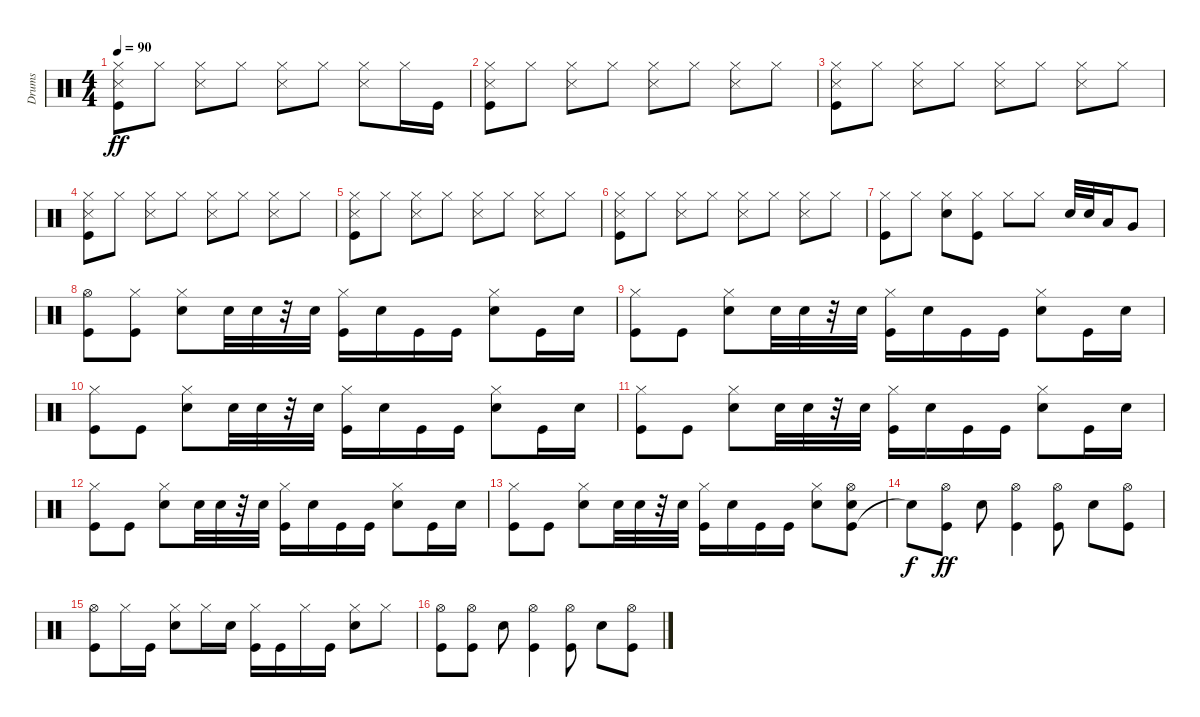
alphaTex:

\track ("Drums" "Drums") {instrument percussion}
\staff {score}
\articulation defaults
\ts (4 4)
\tempo 90
\clef neutral
\ks c
("Kick (hit)" "Snare (side stick) 3" "Hi-Hat (closed)").8{dy ff} "Hi-Hat (closed)".8 ("Snare (side stick) 3" "Hi-Hat (closed)").8 "Hi-Hat (closed)".8 ("Snare (side stick) 3" "Hi-Hat (closed)").8 "Hi-Hat (closed)".8 ("Snare (side stick) 3" "Hi-Hat (closed)").8 "Hi-Hat (closed)".16 "Kick (hit)".16 |
("Kick (hit)" "Snare (side stick) 3" "Hi-Hat (closed)").8 "Hi-Hat (closed)".8 ("Snare (side stick) 3" "Hi-Hat (closed)").8 "Hi-Hat (closed)".8 ("Snare (side stick) 3" "Hi-Hat (closed)").8 "Hi-Hat (closed)".8 ("Snare (side stick) 3" "Hi-Hat (closed)").8 "Hi-Hat (closed)".8 |
("Kick (hit)" "Snare (side stick) 3" "Hi-Hat (closed)").8 "Hi-Hat (closed)".8 ("Snare (side stick) 3" "Hi-Hat (closed)").8 "Hi-Hat (closed)".8 ("Snare (side stick) 3" "Hi-Hat (closed)").8 "Hi-Hat (closed)".8 ("Snare (side stick) 3" "Hi-Hat (closed)").8 "Hi-Hat (closed)".8 |
("Kick (hit)" "Snare (side stick) 3" "Hi-Hat (closed)").8 "Hi-Hat (closed)".8 ("Snare (side stick) 3" "Hi-Hat (closed)").8 "Hi-Hat (closed)".8 ("Snare (side stick) 3" "Hi-Hat (closed)").8 "Hi-Hat (closed)".8 ("Snare (side stick) 3" "Hi-Hat (closed)").8 "Hi-Hat (closed)".8 |
("Kick (hit)" "Snare (side stick) 3" "Hi-Hat (closed)").8 "Hi-Hat (closed)".8 ("Snare (side stick) 3" "Hi-Hat (closed)").8 "Hi-Hat (closed)".8 ("Snare (side stick) 3" "Hi-Hat (closed)").8 "Hi-Hat (closed)".8 ("Snare (side stick) 3" "Hi-Hat (closed)").8 "Hi-Hat (closed)".8 |
("Kick (hit)" "Snare (side stick) 3" "Hi-Hat (closed)").8 "Hi-Hat (closed)".8 ("Snare (side stick) 3" "Hi-Hat (closed)").8 "Hi-Hat (closed)".8 ("Snare (side stick) 3" "Hi-Hat (closed)").8 "Hi-Hat (closed)".8 ("Snare (side stick) 3" "Hi-Hat (closed)").8 "Hi-Hat (closed)".8 |
("Kick (hit)" "Hi-Hat (closed)").8 "Hi-Hat (closed)".8 ("Snare (hit) 2" "Hi-Hat (closed)").8 ("Kick (hit)" "Hi-Hat (closed)").8 "Hi-Hat (closed)".8 "Hi-Hat (closed)".8 "Snare (hit) 2".32 "Snare (hit) 2".32 "Low Tom (hit)".16 "Very Low Tom (hit)".8 |
("Kick (hit)" "Hi-Hat (open)").8 ("Kick (hit)" "Hi-Hat (closed)").8 ("Snare (hit) 2" "Hi-Hat (closed)").8 "Snare (hit) 2".32 "Snare (hit) 2".32 r.32 "Snare (hit) 2".32 ("Kick (hit)" "Hi-Hat (closed)").16 "Snare (hit) 2".16 "Kick (hit)".16 "Kick (hit)".16 ("Snare (hit) 2" "Hi-Hat (closed)").8 "Kick (hit)".16 "Snare (hit) 2".16 |
("Kick (hit)" "Hi-Hat (closed)").8 "Kick (hit)".8 ("Snare (hit) 2" "Hi-Hat (closed)").8 "Snare (hit) 2".32 "Snare (hit) 2".32 r.32 "Snare (hit) 2".32 ("Kick (hit)" "Hi-Hat (closed)").16 "Snare (hit) 2".16 "Kick (hit)".16 "Kick (hit)".16 ("Snare (hit) 2" "Hi-Hat (closed)").8 "Kick (hit)".16 "Snare (hit) 2".16 |
("Kick (hit)" "Hi-Hat (closed)").8 "Kick (hit)".8 ("Snare (hit) 2" "Hi-Hat (closed)").8 "Snare (hit) 2".32 "Snare (hit) 2".32 r.32 "Snare (hit) 2".32 ("Kick (hit)" "Hi-Hat (closed)").16 "Snare (hit) 2".16 "Kick (hit)".16 "Kick (hit)".16 ("Snare (hit) 2" "Hi-Hat (closed)").8 "Kick (hit)".16 "Snare (hit) 2".16 |
("Kick (hit)" "Hi-Hat (closed)").8 "Kick (hit)".8 ("Snare (hit) 2" "Hi-Hat (closed)").8 "Snare (hit) 2".32 "Snare (hit) 2".32 r.32 "Snare (hit) 2".32 ("Kick (hit)" "Hi-Hat (closed)").16 "Snare (hit) 2".16 "Kick (hit)".16 "Kick (hit)".16 ("Snare (hit) 2" "Hi-Hat (closed)").8 "Kick (hit)".16 "Snare (hit) 2".16 |
("Kick (hit)" "Hi-Hat (closed)").8 "Kick (hit)".8 ("Snare (hit) 2" "Hi-Hat (closed)").8 "Snare (hit) 2".32 "Snare (hit) 2".32 r.32 "Snare (hit) 2".32 ("Kick (hit)" "Hi-Hat (closed)").16 "Snare (hit) 2".16 "Kick (hit)".16 "Kick (hit)".16 ("Snare (hit) 2" "Hi-Hat (closed)").8 "Kick (hit)".16 "Snare (hit) 2".16 |
("Kick (hit)" "Hi-Hat (closed)").8 "Kick (hit)".8 ("Snare (hit) 2" "Hi-Hat (closed)").8 "Snare (hit) 2".32 "Snare (hit) 2".32 r.32 "Snare (hit) 2".32 ("Kick (hit)" "Hi-Hat (closed)").16 "Snare (hit) 2".16 "Kick (hit)".16 "Kick (hit)".16 ("Snare (hit) 2" "Hi-Hat (closed)").8 ("Kick (hit)" "Snare (hit) 2" "Hi-Hat (open)").8 |
"Snare (hit)"{t}.8{dy f} ("Kick (hit)" "Hi-Hat (open)").8{dy ff} "Snare (hit) 2".8 ("Kick (hit)" "Hi-Hat (open)").4 ("Kick (hit)" "Hi-Hat (open)").8 "Snare (hit) 2".8 ("Kick (hit)" "Hi-Hat (open)").8 |
("Kick (hit)" "Hi-Hat (open)").8 "Hi-Hat (closed)".16 "Kick (hit)".16 ("Snare (hit) 2" "Hi-Hat (closed)").8 "Hi-Hat (closed)".16 "Snare (hit) 2".16 ("Kick (hit)" "Hi-Hat (closed)").16 "Kick (hit)".16 "Hi-Hat (closed)".16 "Kick (hit)".16 ("Snare (hit) 2" "Hi-Hat (closed)").8 "Hi-Hat (closed)".8 |
("Kick (hit)" "Hi-Hat (open)").8 ("Kick (hit)" "Hi-Hat (open)").8 "Snare (hit) 2".8 ("Kick (hit)" "Hi-Hat (open)").4 ("Kick (hit)" "Hi-Hat (open)").8 "Snare (hit) 2".8 ("Kick (hit)" "Hi-Hat (open)").8
